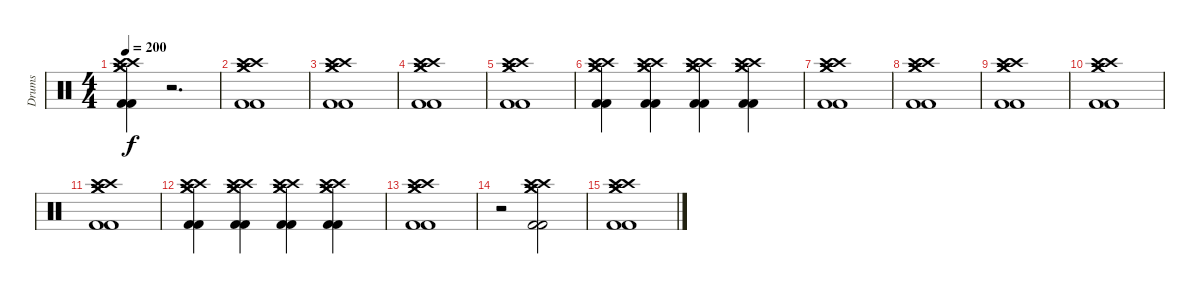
\track ("Drums" "Drums") {instrument percussion}
\staff {score}
\articulation defaults
\ts (4 4)
\tempo 200
\clef neutral
\ks c
("Crash high (hit)" "Crash high (hit)" "Crash medium (hit)" "Crash medium (hit)" "Kick (hit) 2" "Kick (hit) 2").4{dy f volume 13} r.2{d volume 0} |
("Crash high (hit)" "Crash high (hit)" "Crash medium (hit)" "Crash medium (hit)" "Kick (hit) 2" "Kick (hit) 2").1{volume 13} |
("Crash high (hit)" "Crash high (hit)" "Crash medium (hit)" "Crash medium (hit)" "Kick (hit) 2" "Kick (hit) 2").1{volume 13} |
("Crash high (hit)" "Crash high (hit)" "Crash medium (hit)" "Crash medium (hit)" "Kick (hit) 2" "Kick (hit) 2").1{volume 13} |
("Crash high (hit)" "Crash high (hit)" "Crash medium (hit)" "Crash medium (hit)" "Kick (hit) 2" "Kick (hit) 2").1{volume 13} |
("Crash high (hit)" "Crash high (hit)" "Crash medium (hit)" "Crash medium (hit)" "Kick (hit) 2" "Kick (hit) 2").4{volume 13} ("Crash high (hit)" "Crash high (hit)" "Crash medium (hit)" "Crash medium (hit)" "Kick (hit) 2" "Kick (hit) 2").4{volume 13} ("Crash high (hit)" "Crash high (hit)" "Crash medium (hit)" "Crash medium (hit)" "Kick (hit) 2" "Kick (hit) 2").4{volume 13} ("Crash high (hit)" "Crash high (hit)" "Crash medium (hit)" "Crash medium (hit)" "Kick (hit) 2" "Kick (hit) 2").4{volume 13} |
("Crash high (hit)" "Crash high (hit)" "Crash medium (hit)" "Crash medium (hit)" "Kick (hit) 2" "Kick (hit) 2").1{volume 13} |
("Crash high (hit)" "Crash high (hit)" "Crash medium (hit)" "Crash medium (hit)" "Kick (hit) 2" "Kick (hit) 2").1{volume 13} |
("Crash high (hit)" "Crash high (hit)" "Crash medium (hit)" "Crash medium (hit)" "Kick (hit) 2" "Kick (hit) 2").1{volume 13} |
("Crash high (hit)" "Crash high (hit)" "Crash medium (hit)" "Crash medium (hit)" "Kick (hit) 2" "Kick (hit) 2").1{volume 13} |
("Crash high (hit)" "Crash high (hit)" "Crash medium (hit)" "Crash medium (hit)" "Kick (hit) 2" "Kick (hit) 2").1{volume 13} |
("Crash high (hit)" "Crash high (hit)" "Crash medium (hit)" "Crash medium (hit)" "Kick (hit) 2" "Kick (hit) 2").4{volume 13} ("Crash high (hit)" "Crash high (hit)" "Crash medium (hit)" "Crash medium (hit)" "Kick (hit) 2" "Kick (hit) 2").4{volume 13} ("Crash high (hit)" "Crash high (hit)" "Crash medium (hit)" "Crash medium (hit)" "Kick (hit) 2" "Kick (hit) 2").4{volume 13} ("Crash high (hit)" "Crash high (hit)" "Crash medium (hit)" "Crash medium (hit)" "Kick (hit) 2" "Kick (hit) 2").4{volume 13} |
("Crash high (hit)" "Crash high (hit)" "Crash medium (hit)" "Crash medium (hit)" "Kick (hit) 2" "Kick (hit) 2").1{volume 13} |
r.2 ("Crash high (hit)" "Crash high (hit)" "Crash medium (hit)" "Crash medium (hit)" "Kick (hit) 2" "Kick (hit) 2").2 |
("Crash high (hit)" "Crash high (hit)" "Crash medium (hit)" "Crash medium (hit)" "Kick (hit) 2" "Kick (hit) 2").1{volume 13}
